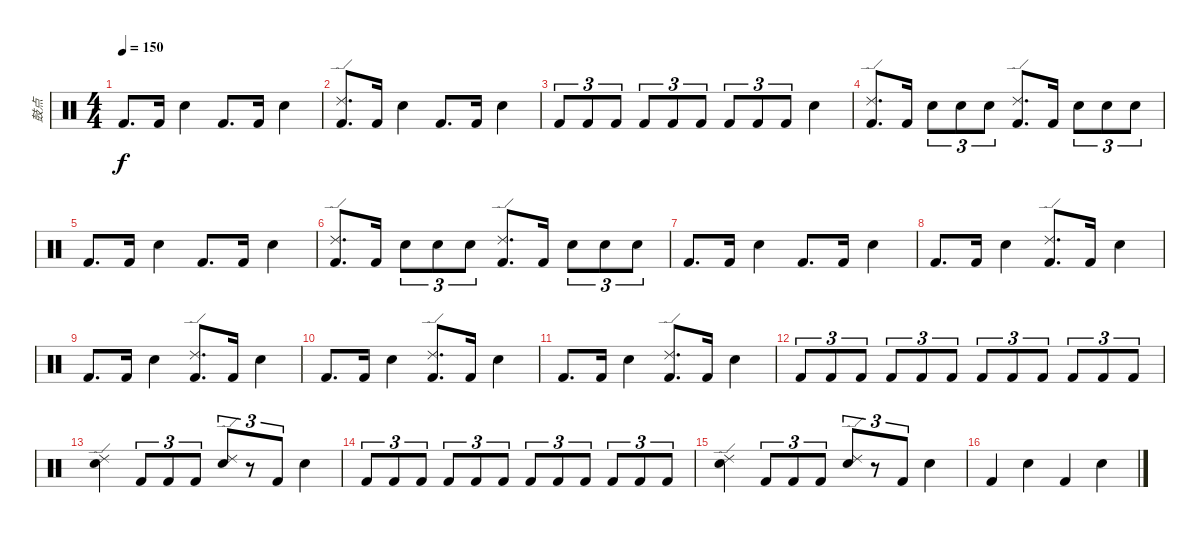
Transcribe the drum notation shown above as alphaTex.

\track ("鼓点" "鼓点") {instrument percussion}
\staff {score}
\articulation defaults
\ts (4 4)
\tempo 150
\clef neutral
\ks c "Kick (hit) 2".8{d dy f} "Kick (hit) 2".16 "Snare (hit) 2".4 "Kick (hit) 2".8{d} "Kick (hit) 2".16 "Snare (hit) 2".4
|
("Kick (hit) 2" "Ride (edge) 2").8{d} "Kick (hit) 2".16 "Snare (hit) 2".4 "Kick (hit) 2".8{d} "Kick (hit) 2".16 "Snare (hit) 2".4 |
"Kick (hit) 2".8{tu (3 2)} "Kick (hit) 2".8{tu (3 2)} "Kick (hit) 2".8{tu (3 2)} "Kick (hit) 2".8{tu (3 2)} "Kick (hit) 2".8{tu (3 2)} "Kick (hit) 2".8{tu (3 2)} "Kick (hit) 2".8{tu (3 2)} "Kick (hit) 2".8{tu (3 2)} "Kick (hit) 2".8{tu (3 2)} "Snare (hit) 2".4 |
("Kick (hit) 2" "Ride (edge) 2").8{d} "Kick (hit) 2".16 "Snare (hit) 2".8{tu (3 2)} "Snare (hit) 2".8{tu (3 2)} "Snare (hit) 2".8{tu (3 2)} ("Kick (hit) 2" "Ride (edge) 2").8{d} "Kick (hit) 2".16 "Snare (hit) 2".8{tu (3 2)} "Snare (hit) 2".8{tu (3 2)} "Snare (hit) 2".8{tu (3 2)} |
"Kick (hit) 2".8{d} "Kick (hit) 2".16 "Snare (hit) 2".4 "Kick (hit) 2".8{d} "Kick (hit) 2".16 "Snare (hit) 2".4 |
("Kick (hit) 2" "Ride (edge) 2").8{d} "Kick (hit) 2".16 "Snare (hit) 2".8{tu (3 2)} "Snare (hit) 2".8{tu (3 2)} "Snare (hit) 2".8{tu (3 2)} ("Kick (hit) 2" "Ride (edge) 2").8{d} "Kick (hit) 2".16 "Snare (hit) 2".8{tu (3 2)} "Snare (hit) 2".8{tu (3 2)} "Snare (hit) 2".8{tu (3 2)} |
"Kick (hit) 2".8{d} "Kick (hit) 2".16 "Snare (hit) 2".4 "Kick (hit) 2".8{d} "Kick (hit) 2".16 "Snare (hit) 2".4 |
"Kick (hit) 2".8{d} "Kick (hit) 2".16 "Snare (hit) 2".4 ("Kick (hit) 2" "Ride (edge) 2").8{d} "Kick (hit) 2".16 "Snare (hit) 2".4 |
"Kick (hit) 2".8{d} "Kick (hit) 2".16 "Snare (hit) 2".4 ("Kick (hit) 2" "Ride (edge) 2").8{d} "Kick (hit) 2".16 "Snare (hit) 2".4 |
"Kick (hit) 2".8{d} "Kick (hit) 2".16 "Snare (hit) 2".4 ("Kick (hit) 2" "Ride (edge) 2").8{d} "Kick (hit) 2".16 "Snare (hit) 2".4 |
"Kick (hit) 2".8{d} "Kick (hit) 2".16 "Snare (hit) 2".4 ("Kick (hit) 2" "Ride (edge) 2").8{d} "Kick (hit) 2".16 "Snare (hit) 2".4 |
"Kick (hit) 2".8{tu (3 2)} "Kick (hit) 2".8{tu (3 2)} "Kick (hit) 2".8{tu (3 2)} "Kick (hit) 2".8{tu (3 2)} "Kick (hit) 2".8{tu (3 2)} "Kick (hit) 2".8{tu (3 2)} "Kick (hit) 2".8{tu (3 2)} "Kick (hit) 2".8{tu (3 2)} "Kick (hit) 2".8{tu (3 2)} "Kick (hit) 2".8{tu (3 2)} "Kick (hit) 2".8{tu (3 2)} "Kick (hit) 2".8{tu (3 2)} |
("Ride (edge) 2" "Snare (hit) 2").4 "Kick (hit) 2".8{tu (3 2)} "Kick (hit) 2".8{tu (3 2)} "Kick (hit) 2".8{tu (3 2)} ("Ride (edge) 2" "Snare (hit) 2").8{tu (3 2)} r.8{tu (3 2)} "Kick (hit) 2".8{tu (3 2)} "Snare (hit) 2".4 |
"Kick (hit) 2".8{tu (3 2)} "Kick (hit) 2".8{tu (3 2)} "Kick (hit) 2".8{tu (3 2)} "Kick (hit) 2".8{tu (3 2)} "Kick (hit) 2".8{tu (3 2)} "Kick (hit) 2".8{tu (3 2)} "Kick (hit) 2".8{tu (3 2)} "Kick (hit) 2".8{tu (3 2)} "Kick (hit) 2".8{tu (3 2)} "Kick (hit) 2".8{tu (3 2)} "Kick (hit) 2".8{tu (3 2)} "Kick (hit) 2".8{tu (3 2)} |
("Ride (edge) 2" "Snare (hit) 2").4 "Kick (hit) 2".8{tu (3 2)} "Kick (hit) 2".8{tu (3 2)} "Kick (hit) 2".8{tu (3 2)} ("Ride (edge) 2" "Snare (hit) 2").8{tu (3 2)} r.8{tu (3 2)} "Kick (hit) 2".8{tu (3 2)} "Snare (hit) 2".4 |
"Kick (hit) 2".4 "Snare (hit) 2".4 "Kick (hit) 2".4 "Snare (hit) 2".4
